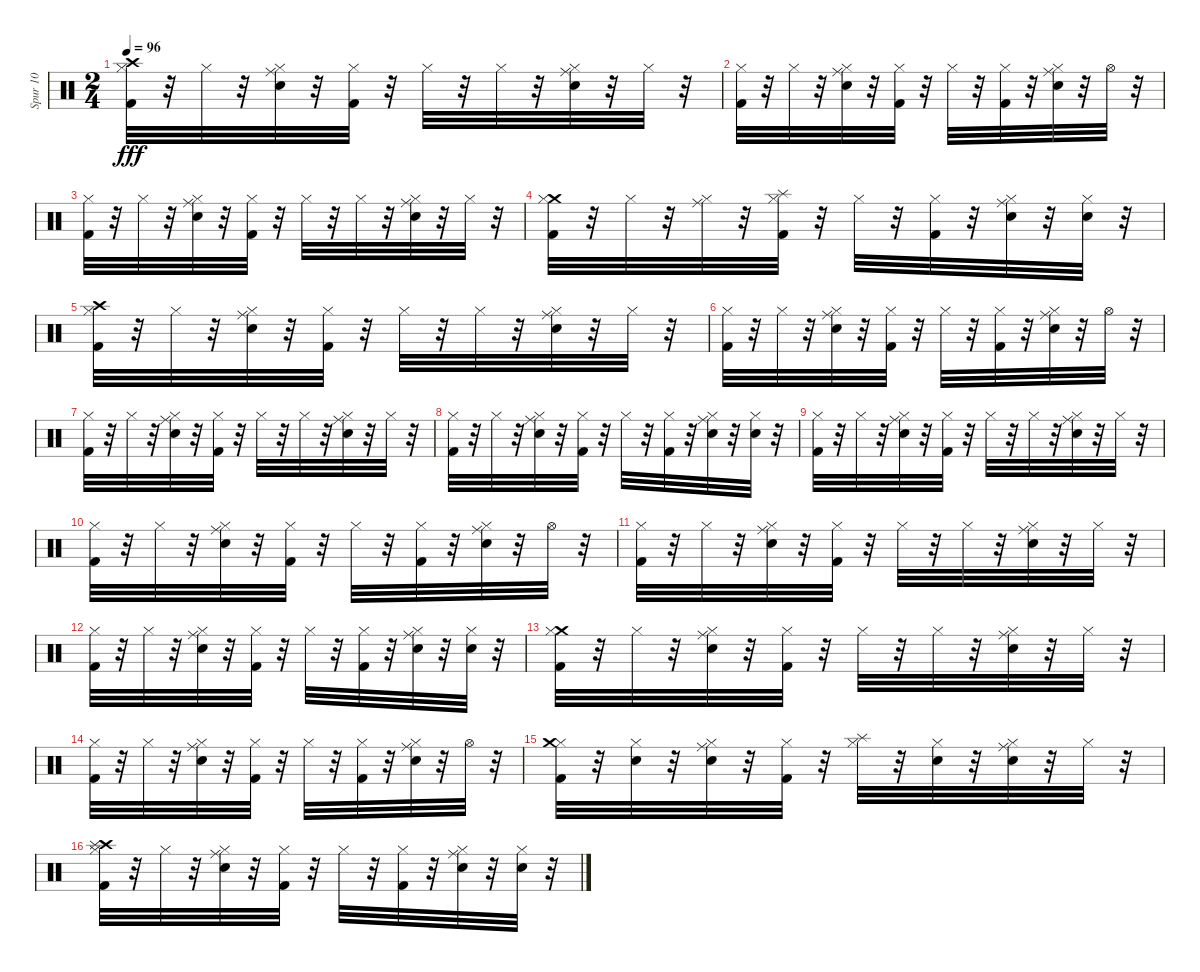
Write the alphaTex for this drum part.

\track ("Spur 10" "Spur 10") {instrument percussion}
\staff {score}
\articulation defaults
\ts (2 4)
\tempo 96
\clef neutral
\ks c
("Hi-Hat (closed)" "Crash high (hit)" "Kick (hit) 2").32{dy fff} r.32 "Hi-Hat (closed)".32 r.32 ("Hi-Hat (closed)" "Electric Snare (hit)" "Ride (middle)").32 r.32 ("Hi-Hat (closed)" "Kick (hit) 2").32 r.32 "Hi-Hat (closed)".32 r.32 "Hi-Hat (closed)".32 r.32 ("Hi-Hat (closed)" "Electric Snare (hit)" "Ride (middle)").32 r.32 "Hi-Hat (closed)".32 r.32 |
("Hi-Hat (closed)" "Kick (hit) 2").32 r.32 "Hi-Hat (closed)".32 r.32 ("Hi-Hat (closed)" "Electric Snare (hit)" "Ride (middle)").32 r.32 ("Hi-Hat (closed)" "Kick (hit) 2").32 r.32 "Hi-Hat (closed)".32 r.32 ("Hi-Hat (closed)" "Kick (hit) 2").32 r.32 ("Hi-Hat (closed)" "Electric Snare (hit)" "Ride (middle)").32 r.32 "Hi-Hat (open)".32 r.32 |
("Hi-Hat (closed)" "Kick (hit) 2").32 r.32 "Hi-Hat (closed)".32 r.32 ("Hi-Hat (closed)" "Electric Snare (hit)" "Ride (middle)").32 r.32 ("Hi-Hat (closed)" "Kick (hit) 2").32 r.32 "Hi-Hat (closed)".32 r.32 "Hi-Hat (closed)".32 r.32 ("Hi-Hat (closed)" "Electric Snare (hit)" "Ride (middle)").32 r.32 "Hi-Hat (closed)".32 r.32 |
("Crash medium (hit)" "Hi-Hat (closed)" "Kick (hit) 2").32 r.32 "Hi-Hat (closed)".32 r.32 ("Hi-Hat (closed)" "Ride (middle)").32 r.32 ("Splash (hit)" "Hi-Hat (closed)" "Kick (hit) 2").32 r.32 "Hi-Hat (closed)".32 r.32 ("Hi-Hat (closed)" "Kick (hit) 2").32 r.32 ("Hi-Hat (closed)" "Electric Snare (hit)" "Ride (middle)").32 r.32 ("Hi-Hat (closed)" "Electric Snare (hit)").32 r.32 |
("Hi-Hat (closed)" "Crash high (hit)" "Kick (hit) 2").32 r.32 "Hi-Hat (closed)".32 r.32 ("Hi-Hat (closed)" "Electric Snare (hit)" "Ride (middle)").32 r.32 ("Hi-Hat (closed)" "Kick (hit) 2").32 r.32 "Hi-Hat (closed)".32 r.32 "Hi-Hat (closed)".32 r.32 ("Hi-Hat (closed)" "Electric Snare (hit)" "Ride (middle)").32 r.32 "Hi-Hat (closed)".32 r.32 |
("Hi-Hat (closed)" "Kick (hit) 2").32 r.32 "Hi-Hat (closed)".32 r.32 ("Hi-Hat (closed)" "Electric Snare (hit)" "Ride (middle)").32 r.32 ("Hi-Hat (closed)" "Kick (hit) 2").32 r.32 "Hi-Hat (closed)".32 r.32 ("Hi-Hat (closed)" "Kick (hit) 2").32 r.32 ("Hi-Hat (closed)" "Electric Snare (hit)" "Ride (middle)").32 r.32 "Hi-Hat (open)".32 r.32 |
("Hi-Hat (closed)" "Kick (hit) 2").32 r.32 "Hi-Hat (closed)".32 r.32 ("Hi-Hat (closed)" "Ride (middle)" "Electric Snare (hit)").32 r.32 ("Hi-Hat (closed)" "Kick (hit) 2").32 r.32 "Hi-Hat (closed)".32 r.32 "Hi-Hat (closed)".32 r.32 ("Hi-Hat (closed)" "Ride (middle)" "Electric Snare (hit)").32 r.32 "Hi-Hat (closed)".32 r.32 |
("Hi-Hat (closed)" "Kick (hit) 2").32 r.32 "Hi-Hat (closed)".32 r.32 ("Hi-Hat (closed)" "Ride (middle)" "Electric Snare (hit)").32 r.32 ("Hi-Hat (closed)" "Kick (hit) 2").32 r.32 "Hi-Hat (closed)".32 r.32 ("Hi-Hat (closed)" "Kick (hit) 2").32 r.32 ("Hi-Hat (closed)" "Ride (middle)" "Electric Snare (hit)").32 r.32 ("Hi-Hat (closed)" "Electric Snare (hit)").32 r.32 |
("Hi-Hat (closed)" "Kick (hit) 2").32 r.32 "Hi-Hat (closed)".32 r.32 ("Hi-Hat (closed)" "Electric Snare (hit)" "Ride (middle)").32 r.32 ("Hi-Hat (closed)" "Kick (hit) 2").32 r.32 "Hi-Hat (closed)".32 r.32 "Hi-Hat (closed)".32 r.32 ("Hi-Hat (closed)" "Electric Snare (hit)" "Ride (middle)").32 r.32 "Hi-Hat (closed)".32 r.32 |
("Hi-Hat (closed)" "Kick (hit) 2").32 r.32 "Hi-Hat (closed)".32 r.32 ("Hi-Hat (closed)" "Electric Snare (hit)" "Ride (middle)").32 r.32 ("Hi-Hat (closed)" "Kick (hit) 2").32 r.32 "Hi-Hat (closed)".32 r.32 ("Hi-Hat (closed)" "Kick (hit) 2").32 r.32 ("Hi-Hat (closed)" "Electric Snare (hit)" "Ride (middle)").32 r.32 "Hi-Hat (open)".32 r.32 |
("Hi-Hat (closed)" "Kick (hit) 2").32 r.32 "Hi-Hat (closed)".32 r.32 ("Hi-Hat (closed)" "Ride (middle)" "Electric Snare (hit)").32 r.32 ("Hi-Hat (closed)" "Kick (hit) 2").32 r.32 "Hi-Hat (closed)".32 r.32 "Hi-Hat (closed)".32 r.32 ("Hi-Hat (closed)" "Ride (middle)" "Electric Snare (hit)").32 r.32 "Hi-Hat (closed)".32 r.32 |
("Hi-Hat (closed)" "Kick (hit) 2").32 r.32 "Hi-Hat (closed)".32 r.32 ("Hi-Hat (closed)" "Ride (middle)" "Electric Snare (hit)").32 r.32 ("Hi-Hat (closed)" "Kick (hit) 2").32 r.32 "Hi-Hat (closed)".32 r.32 ("Hi-Hat (closed)" "Kick (hit) 2").32 r.32 ("Hi-Hat (closed)" "Ride (middle)" "Electric Snare (hit)").32 r.32 ("Hi-Hat (closed)" "Electric Snare (hit)").32 r.32 |
("Crash medium (hit)" "Hi-Hat (closed)" "Kick (hit) 2").32 r.32 "Hi-Hat (closed)".32 r.32 ("Hi-Hat (closed)" "Electric Snare (hit)" "Ride (middle)").32 r.32 ("Hi-Hat (closed)" "Kick (hit) 2").32 r.32 "Hi-Hat (closed)".32 r.32 "Hi-Hat (closed)".32 r.32 ("Hi-Hat (closed)" "Electric Snare (hit)" "Ride (middle)").32 r.32 "Hi-Hat (closed)".32 r.32 |
("Hi-Hat (closed)" "Kick (hit) 2").32 r.32 "Hi-Hat (closed)".32 r.32 ("Hi-Hat (closed)" "Electric Snare (hit)" "Ride (middle)").32 r.32 ("Hi-Hat (closed)" "Kick (hit) 2").32 r.32 "Hi-Hat (closed)".32 r.32 ("Hi-Hat (closed)" "Kick (hit) 2").32 r.32 ("Hi-Hat (closed)" "Electric Snare (hit)" "Ride (middle)").32 r.32 "Hi-Hat (open)".32 r.32 |
("Hi-Hat (closed)" "Crash medium (hit)" "Kick (hit) 2").32 r.32 ("Hi-Hat (closed)" "Electric Snare (hit)").32 r.32 ("Hi-Hat (closed)" "Ride (middle)" "Electric Snare (hit)").32 r.32 ("Hi-Hat (closed)" "Kick (hit) 2").32 r.32 ("Hi-Hat (closed)" "Splash (hit)").32 r.32 ("Hi-Hat (closed)" "Electric Snare (hit)").32 r.32 ("Hi-Hat (closed)" "Ride (middle)" "Electric Snare (hit)").32 r.32 "Hi-Hat (closed)".32 r.32 |
("Hi-Hat (closed)" "Crash high (hit)" "Splash (hit)" "Kick (hit) 2").32 r.32 "Hi-Hat (closed)".32 r.32 ("Hi-Hat (closed)" "Ride (middle)" "Electric Snare (hit)").32 r.32 ("Hi-Hat (closed)" "Kick (hit) 2").32 r.32 "Hi-Hat (closed)".32 r.32 ("Hi-Hat (closed)" "Kick (hit) 2").32 r.32 ("Hi-Hat (closed)" "Ride (middle)" "Electric Snare (hit)").32 r.32 ("Hi-Hat (closed)" "Electric Snare (hit)").32 r.32
